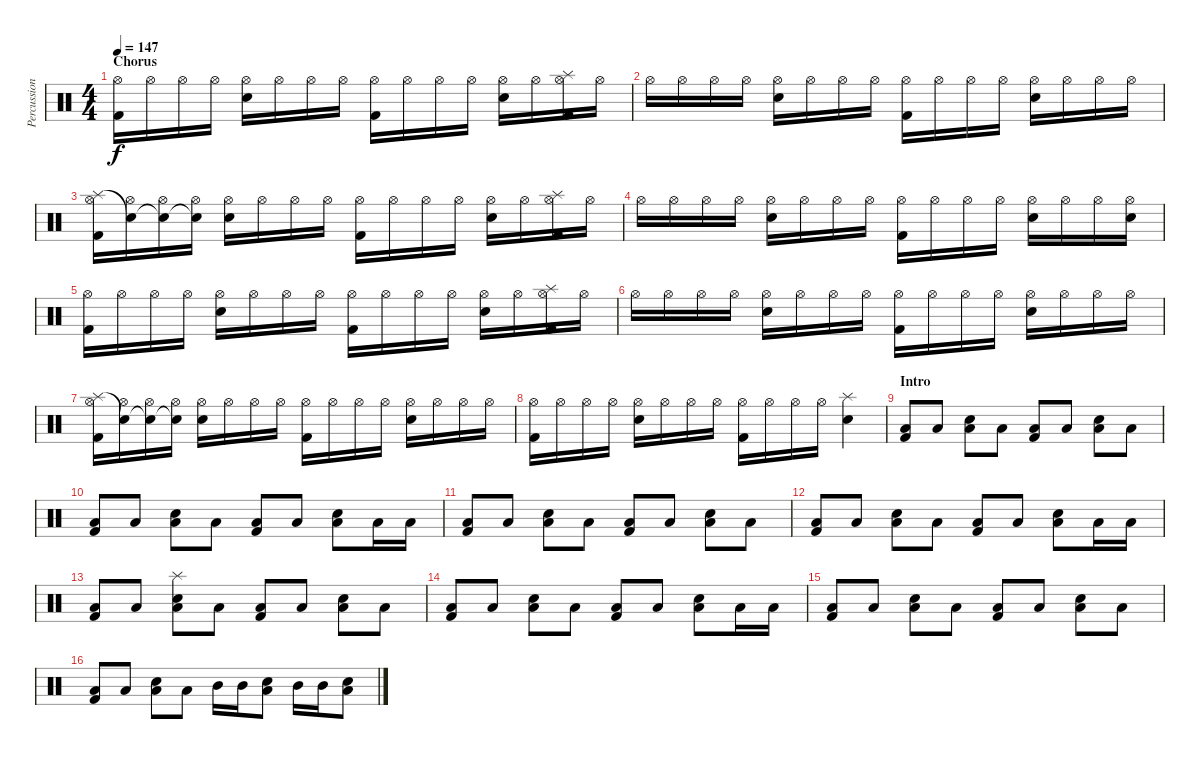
\track ("Percussion" "Percussion") {instrument percussion}
\staff {score}
\articulation defaults
\ts (4 4)
\section ("" "Chorus")
\tempo 147
\clef neutral
\ks c
("Hi-Hat (open)" "Kick (hit) 2").16{dy f} "Hi-Hat (open)".16 "Hi-Hat (open)".16 "Hi-Hat (open)".16 ("Hi-Hat (open)" "Snare (hit) 2").16 "Hi-Hat (open)".16 "Hi-Hat (open)".16 "Hi-Hat (open)".16 ("Hi-Hat (open)" "Kick (hit) 2").16 "Hi-Hat (open)".16 "Hi-Hat (open)".16 "Hi-Hat (open)".16 ("Hi-Hat (open)" "Snare (hit) 2").16 "Hi-Hat (open)".16 ("Hi-Hat (open)" "Splash (hit)" "Kick (hit) 2").16 "Hi-Hat (open)".16 |
"Hi-Hat (open)".16 "Hi-Hat (open)".16 "Hi-Hat (open)".16 "Hi-Hat (open)".16 ("Hi-Hat (open)" "Snare (hit) 2").16 "Hi-Hat (open)".16 "Hi-Hat (open)".16 "Hi-Hat (open)".16 ("Hi-Hat (open)" "Kick (hit) 2").16 "Hi-Hat (open)".16 "Hi-Hat (open)".16 "Hi-Hat (open)".16 ("Hi-Hat (open)" "Snare (hit) 2").16 "Hi-Hat (open)".16 "Hi-Hat (open)".16 "Hi-Hat (open)".16 |
("Hi-Hat (open)" "Splash (hit)" "Kick (hit) 2").16 ("Hi-Hat (open)" "Snare (hit)"{t}).16 ("Hi-Hat (open)" "Snare (hit)"{t}).16 ("Hi-Hat (open)" "Snare (hit)"{t}).16 ("Hi-Hat (open)" "Snare (hit) 2").16 "Hi-Hat (open)".16 "Hi-Hat (open)".16 "Hi-Hat (open)".16 ("Hi-Hat (open)" "Kick (hit) 2").16 "Hi-Hat (open)".16 "Hi-Hat (open)".16 "Hi-Hat (open)".16 ("Hi-Hat (open)" "Snare (hit) 2").16 "Hi-Hat (open)".16 ("Hi-Hat (open)" "Splash (hit)" "Kick (hit) 2").16 "Hi-Hat (open)".16 |
"Hi-Hat (open)".16 "Hi-Hat (open)".16 "Hi-Hat (open)".16 "Hi-Hat (open)".16 ("Hi-Hat (open)" "Snare (hit) 2").16 "Hi-Hat (open)".16 "Hi-Hat (open)".16 "Hi-Hat (open)".16 ("Hi-Hat (open)" "Kick (hit) 2").16 "Hi-Hat (open)".16 "Hi-Hat (open)".16 "Hi-Hat (open)".16 ("Hi-Hat (open)" "Snare (hit) 2").16 "Hi-Hat (open)".16 "Hi-Hat (open)".16 ("Hi-Hat (open)" "Snare (hit) 2").16 |
("Hi-Hat (open)" "Kick (hit) 2").16 "Hi-Hat (open)".16 "Hi-Hat (open)".16 "Hi-Hat (open)".16 ("Hi-Hat (open)" "Snare (hit) 2").16 "Hi-Hat (open)".16 "Hi-Hat (open)".16 "Hi-Hat (open)".16 ("Hi-Hat (open)" "Kick (hit) 2").16 "Hi-Hat (open)".16 "Hi-Hat (open)".16 "Hi-Hat (open)".16 ("Hi-Hat (open)" "Snare (hit) 2").16 "Hi-Hat (open)".16 ("Hi-Hat (open)" "Splash (hit)" "Kick (hit) 2").16 "Hi-Hat (open)".16 |
"Hi-Hat (open)".16 "Hi-Hat (open)".16 "Hi-Hat (open)".16 "Hi-Hat (open)".16 ("Hi-Hat (open)" "Snare (hit) 2").16 "Hi-Hat (open)".16 "Hi-Hat (open)".16 "Hi-Hat (open)".16 ("Hi-Hat (open)" "Kick (hit) 2").16 "Hi-Hat (open)".16 "Hi-Hat (open)".16 "Hi-Hat (open)".16 ("Hi-Hat (open)" "Snare (hit) 2").16 "Hi-Hat (open)".16 "Hi-Hat (open)".16 "Hi-Hat (open)".16 |
("Hi-Hat (open)" "Splash (hit)" "Kick (hit) 2").16 ("Hi-Hat (open)" "Snare (hit)"{t}).16 ("Hi-Hat (open)" "Snare (hit)"{t}).16 ("Hi-Hat (open)" "Snare (hit)"{t}).16 ("Hi-Hat (open)" "Snare (hit) 2").16 "Hi-Hat (open)".16 "Hi-Hat (open)".16 "Hi-Hat (open)".16 ("Hi-Hat (open)" "Kick (hit) 2").16 "Hi-Hat (open)".16 "Hi-Hat (open)".16 "Hi-Hat (open)".16 ("Hi-Hat (open)" "Snare (hit) 2").16 "Hi-Hat (open)".16 "Hi-Hat (open)".16 "Hi-Hat (open)".16 |
("Hi-Hat (open)" "Kick (hit) 2").16 "Hi-Hat (open)".16 "Hi-Hat (open)".16 "Hi-Hat (open)".16 ("Hi-Hat (open)" "Snare (hit) 2").16 "Hi-Hat (open)".16 "Hi-Hat (open)".16 "Hi-Hat (open)".16 ("Hi-Hat (open)" "Kick (hit) 2").16 "Hi-Hat (open)".16 "Hi-Hat (open)".16 "Hi-Hat (open)".16 ("Splash (hit)" "Snare (hit) 2").4 |
\section ("" "Intro")
("Low Tom (hit)" "Kick (hit) 2").8 "Low Tom (hit)".8 ("Low Tom (hit)" "Snare (hit) 2").8 "Low Tom (hit)".8 ("Low Tom (hit)" "Kick (hit) 2").8 "Low Tom (hit)".8 ("Low Tom (hit)" "Snare (hit) 2").8 "Low Tom (hit)".8 |
\section ("" "")
("Low Tom (hit)" "Kick (hit) 2").8 "Low Tom (hit)".8 ("Low Tom (hit)" "Snare (hit) 2").8 "Low Tom (hit)".8 ("Low Tom (hit)" "Kick (hit) 2").8 "Low Tom (hit)".8 ("Low Tom (hit)" "Snare (hit) 2").8 "Low Tom (hit)".16 "Low Tom (hit)".16 |
("Low Tom (hit)" "Kick (hit) 2").8 "Low Tom (hit)".8 ("Low Tom (hit)" "Snare (hit) 2").8 "Low Tom (hit)".8 ("Low Tom (hit)" "Kick (hit) 2").8 "Low Tom (hit)".8 ("Low Tom (hit)" "Snare (hit) 2").8 "Low Tom (hit)".8 |
("Low Tom (hit)" "Kick (hit) 2").8 "Low Tom (hit)".8 ("Low Tom (hit)" "Snare (hit) 2").8 "Low Tom (hit)".8 ("Low Tom (hit)" "Kick (hit) 2").8 "Low Tom (hit)".8 ("Low Tom (hit)" "Snare (hit) 2").8 "Low Tom (hit)".16 "Low Tom (hit)".16 |
("Low Tom (hit)" "Kick (hit) 2").8 "Low Tom (hit)".8 ("Splash (hit)" "Low Tom (hit)" "Snare (hit) 2").8 "Low Tom (hit)".8 ("Low Tom (hit)" "Kick (hit) 2").8 "Low Tom (hit)".8 ("Low Tom (hit)" "Snare (hit) 2").8 "Low Tom (hit)".8 |
("Low Tom (hit)" "Kick (hit) 2").8 "Low Tom (hit)".8 ("Low Tom (hit)" "Snare (hit) 2").8 "Low Tom (hit)".8 ("Low Tom (hit)" "Kick (hit) 2").8 "Low Tom (hit)".8 ("Low Tom (hit)" "Snare (hit) 2").8 "Low Tom (hit)".16 "Low Tom (hit)".16 |
("Low Tom (hit)" "Kick (hit) 2").8 "Low Tom (hit)".8 ("Low Tom (hit)" "Snare (hit) 2").8 "Low Tom (hit)".8 ("Low Tom (hit)" "Kick (hit) 2").8 "Low Tom (hit)".8 ("Low Tom (hit)" "Snare (hit) 2").8 "Low Tom (hit)".8 |
("Low Tom (hit)" "Kick (hit) 2").8 "Low Tom (hit)".8 ("Low Tom (hit)" "Snare (hit) 2").8 "Low Tom (hit)".8 "Mid Tom (hit)".16 "Mid Tom (hit)".16 ("Low Tom (hit)" "Snare (hit) 2").8 "Mid Tom (hit)".16 "Mid Tom (hit)".16 ("Low Tom (hit)" "Snare (hit) 2").8
